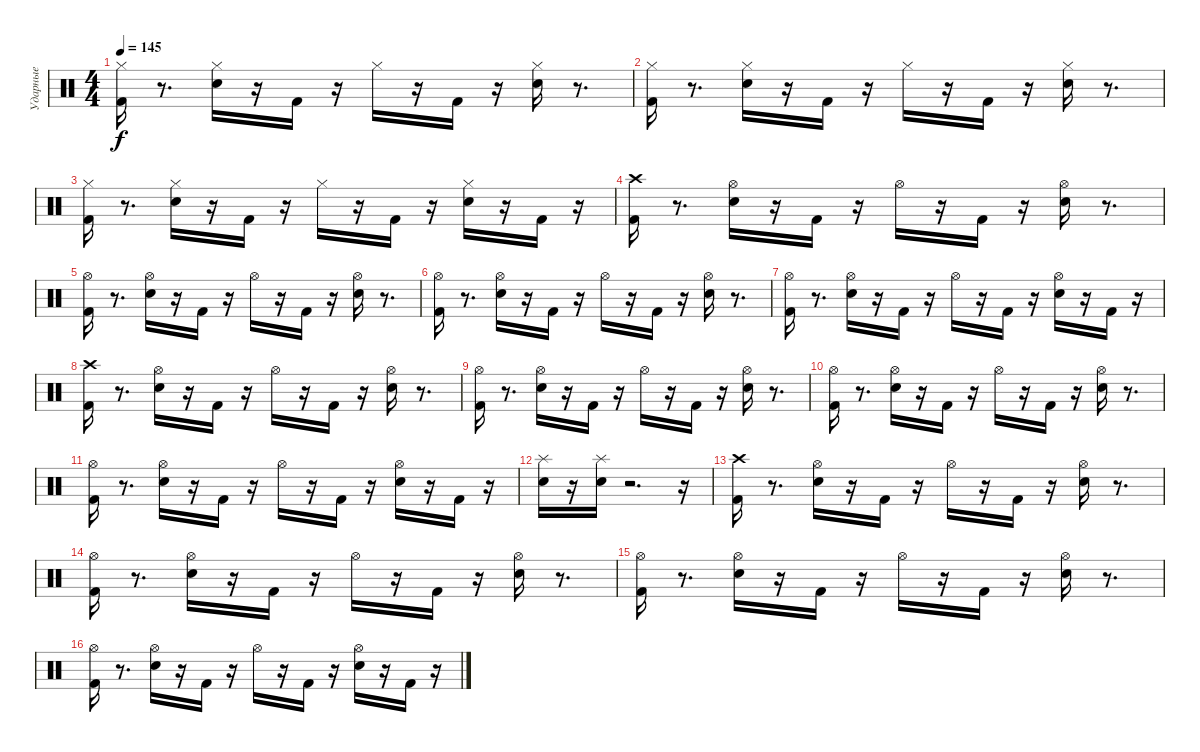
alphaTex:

\track ("Ударные" "Ударные") {instrument percussion}
\staff {score}
\articulation defaults
\ts (4 4)
\tempo 145
\clef neutral
\ks c
("Hi-Hat (closed)" "Kick (hit) 2").16{dy f} r.8{d} ("Hi-Hat (closed)" "Electric Snare (hit)").16 r.16 "Kick (hit) 2".16 r.16 "Hi-Hat (closed)".16 r.16 "Kick (hit) 2".16 r.16 ("Electric Snare (hit)" "Hi-Hat (closed)").16 r.8{d} |
("Kick (hit) 2" "Hi-Hat (closed)").16 r.8{d} ("Electric Snare (hit)" "Hi-Hat (closed)").16 r.16 "Kick (hit) 2".16 r.16 "Hi-Hat (closed)".16 r.16 "Kick (hit) 2".16 r.16 ("Hi-Hat (closed)" "Electric Snare (hit)").16 r.8{d} |
("Kick (hit) 2" "Hi-Hat (closed)").16 r.8{d} ("Hi-Hat (closed)" "Electric Snare (hit)").16 r.16 "Kick (hit) 2".16 r.16 "Hi-Hat (closed)".16 r.16 "Kick (hit) 2".16 r.16 ("Electric Snare (hit)" "Hi-Hat (closed)").16 r.16 "Kick (hit) 2".16 r.16 |
("Kick (hit) 2" "Crash high (hit)").16 r.8{d} ("Hi-Hat (open)" "Electric Snare (hit)").16 r.16 "Kick (hit) 2".16 r.16 "Hi-Hat (open)".16 r.16 "Kick (hit) 2".16 r.16 ("Electric Snare (hit)" "Hi-Hat (open)").16 r.8{d} |
("Kick (hit) 2" "Hi-Hat (open)").16 r.8{d} ("Electric Snare (hit)" "Hi-Hat (open)").16 r.16 "Kick (hit) 2".16 r.16 "Hi-Hat (open)".16 r.16 "Kick (hit) 2".16 r.16 ("Hi-Hat (open)" "Electric Snare (hit)").16 r.8{d} |
("Kick (hit) 2" "Hi-Hat (open)").16 r.8{d} ("Electric Snare (hit)" "Hi-Hat (open)").16 r.16 "Kick (hit) 2".16 r.16 "Hi-Hat (open)".16 r.16 "Kick (hit) 2".16 r.16 ("Electric Snare (hit)" "Hi-Hat (open)").16 r.8{d} |
("Hi-Hat (open)" "Kick (hit) 2").16 r.8{d} ("Electric Snare (hit)" "Hi-Hat (open)").16 r.16 "Kick (hit) 2".16 r.16 "Hi-Hat (open)".16 r.16 "Kick (hit) 2".16 r.16 ("Electric Snare (hit)" "Hi-Hat (open)").16 r.16 "Kick (hit) 2".16 r.16 |
("Crash high (hit)" "Kick (hit) 2").16 r.8{d} ("Electric Snare (hit)" "Hi-Hat (open)").16 r.16 "Kick (hit) 2".16 r.16 "Hi-Hat (open)".16 r.16 "Kick (hit) 2".16 r.16 ("Electric Snare (hit)" "Hi-Hat (open)").16 r.8{d} |
("Kick (hit) 2" "Hi-Hat (open)").16 r.8{d} ("Hi-Hat (open)" "Electric Snare (hit)").16 r.16 "Kick (hit) 2".16 r.16 "Hi-Hat (open)".16 r.16 "Kick (hit) 2".16 r.16 ("Electric Snare (hit)" "Hi-Hat (open)").16 r.8{d} |
("Kick (hit) 2" "Hi-Hat (open)").16 r.8{d} ("Hi-Hat (open)" "Electric Snare (hit)").16 r.16 "Kick (hit) 2".16 r.16 "Hi-Hat (open)".16 r.16 "Kick (hit) 2".16 r.16 ("Hi-Hat (open)" "Electric Snare (hit)").16 r.8{d} |
("Kick (hit) 2" "Hi-Hat (open)").16 r.8{d} ("Electric Snare (hit)" "Hi-Hat (open)").16 r.16 "Kick (hit) 2".16 r.16 "Hi-Hat (open)".16 r.16 "Kick (hit) 2".16 r.16 ("Electric Snare (hit)" "Hi-Hat (open)").16 r.16 "Kick (hit) 2".16 r.16 |
("Electric Snare (hit)" "Splash (hit)").16 r.16 ("Electric Snare (hit)" "Splash (hit)").16 r.2{d} r.16 |
("Crash high (hit)" "Kick (hit) 2").16 r.8{d} ("Electric Snare (hit)" "Hi-Hat (open)").16 r.16 "Kick (hit) 2".16 r.16 "Hi-Hat (open)".16 r.16 "Kick (hit) 2".16 r.16 ("Hi-Hat (open)" "Electric Snare (hit)").16 r.8{d} |
("Hi-Hat (open)" "Kick (hit) 2").16 r.8{d} ("Electric Snare (hit)" "Hi-Hat (open)").16 r.16 "Kick (hit) 2".16 r.16 "Hi-Hat (open)".16 r.16 "Kick (hit) 2".16 r.16 ("Hi-Hat (open)" "Electric Snare (hit)").16 r.8{d} |
("Kick (hit) 2" "Hi-Hat (open)").16 r.8{d} ("Hi-Hat (open)" "Electric Snare (hit)").16 r.16 "Kick (hit) 2".16 r.16 "Hi-Hat (open)".16 r.16 "Kick (hit) 2".16 r.16 ("Hi-Hat (open)" "Electric Snare (hit)").16 r.8{d} |
("Kick (hit) 2" "Hi-Hat (open)").16 r.8{d} ("Hi-Hat (open)" "Electric Snare (hit)").16 r.16 "Kick (hit) 2".16 r.16 "Hi-Hat (open)".16 r.16 "Kick (hit) 2".16 r.16 ("Hi-Hat (open)" "Electric Snare (hit)").16 r.16 "Kick (hit) 2".16 r.16
